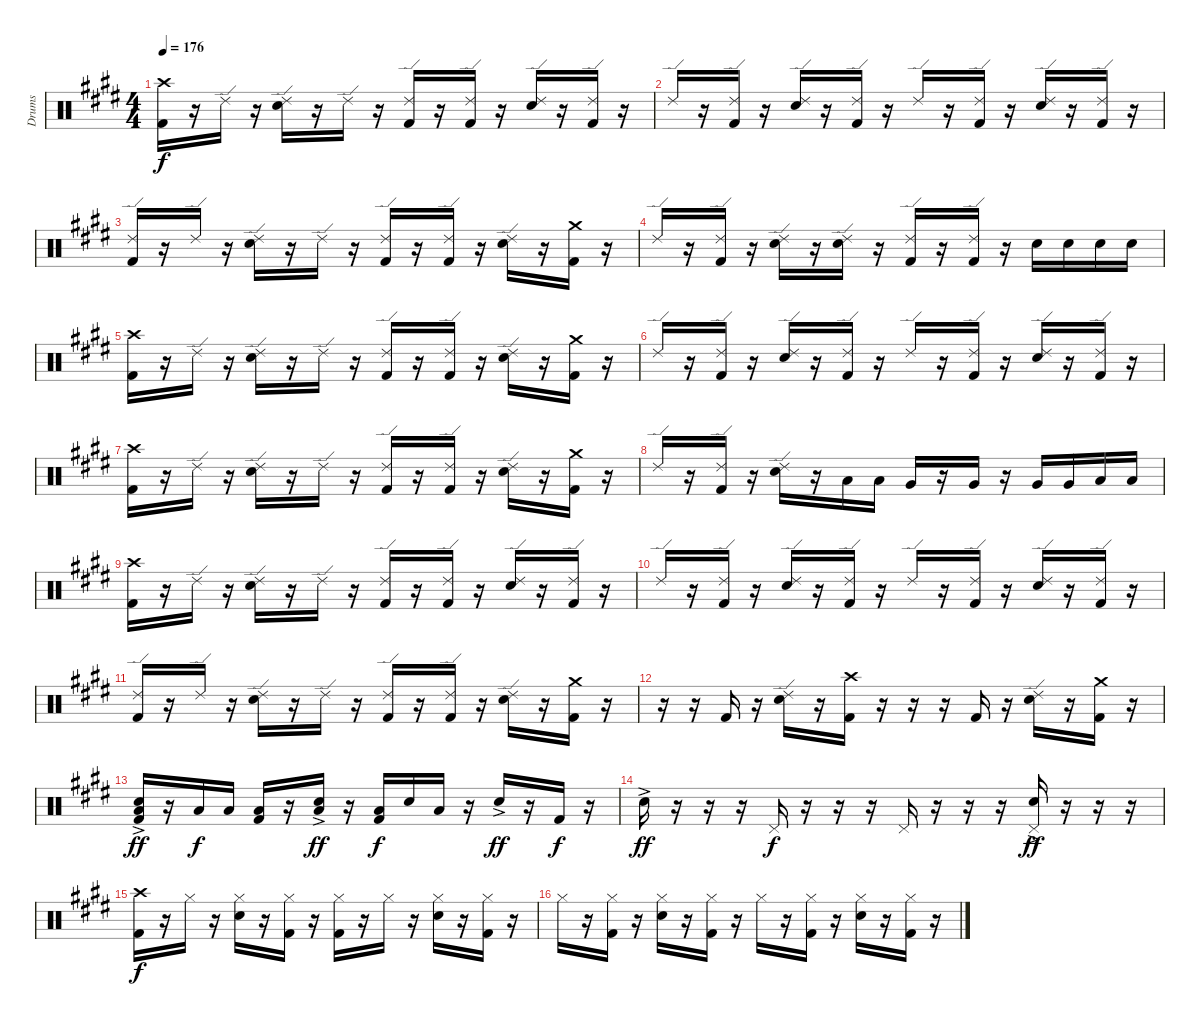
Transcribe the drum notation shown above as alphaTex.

\track ("Drums" "Drums") {instrument percussion}
\staff {score}
\articulation defaults
\ts (4 4)
\tempo 176
\clef neutral
\ks e
("Crash high (hit)" "Kick (hit) 2").16{dy f} r.16 "Ride (edge) 2".16 r.16 ("Ride (edge) 2" "Electric Snare (hit)").16 r.16 "Ride (edge) 2".16 r.16 ("Ride (edge) 2" "Kick (hit) 2").16 r.16 ("Ride (edge) 2" "Kick (hit) 2").16 r.16 ("Ride (edge) 2" "Electric Snare (hit)").16 r.16 ("Ride (edge) 2" "Kick (hit) 2").16 r.16 |
"Ride (edge) 2".16 r.16 ("Ride (edge) 2" "Kick (hit) 2").16 r.16 ("Ride (edge) 2" "Electric Snare (hit)").16 r.16 ("Ride (edge) 2" "Kick (hit) 2").16 r.16 "Ride (edge) 2".16 r.16 ("Ride (edge) 2" "Kick (hit) 2").16 r.16 ("Ride (edge) 2" "Electric Snare (hit)").16 r.16 ("Ride (edge) 2" "Kick (hit) 2").16 r.16 |
("Ride (edge) 2" "Kick (hit) 2").16 r.16 "Ride (edge) 2".16 r.16 ("Ride (edge) 2" "Electric Snare (hit)").16 r.16 "Ride (edge) 2".16 r.16 ("Ride (edge) 2" "Kick (hit) 2").16 r.16 ("Ride (edge) 2" "Kick (hit) 2").16 r.16 ("Ride (edge) 2" "Electric Snare (hit)").16 r.16 ("Crash medium (hit)" "Kick (hit) 2").16 r.16 |
"Ride (edge) 2".16 r.16 ("Ride (edge) 2" "Kick (hit) 2").16 r.16 ("Ride (edge) 2" "Electric Snare (hit)").16 r.16 ("Ride (edge) 2" "Electric Snare (hit)").16 r.16 ("Ride (edge) 2" "Kick (hit) 2").16 r.16 ("Ride (edge) 2" "Kick (hit) 2").16 r.16 "Electric Snare (hit)".16 "Electric Snare (hit)".16 "Electric Snare (hit)".16 "Electric Snare (hit)".16 |
("Crash high (hit)" "Kick (hit) 2").16 r.16 "Ride (edge) 2".16 r.16 ("Ride (edge) 2" "Electric Snare (hit)").16 r.16 "Ride (edge) 2".16 r.16 ("Ride (edge) 2" "Kick (hit) 2").16 r.16 ("Ride (edge) 2" "Kick (hit) 2").16 r.16 ("Ride (edge) 2" "Electric Snare (hit)").16 r.16 ("Crash medium (hit)" "Kick (hit) 2").16 r.16 |
"Ride (edge) 2".16 r.16 ("Ride (edge) 2" "Kick (hit) 2").16 r.16 ("Ride (edge) 2" "Electric Snare (hit)").16 r.16 ("Ride (edge) 2" "Kick (hit) 2").16 r.16 "Ride (edge) 2".16 r.16 ("Ride (edge) 2" "Kick (hit) 2").16 r.16 ("Ride (edge) 2" "Electric Snare (hit)").16 r.16 ("Ride (edge) 2" "Kick (hit) 2").16 r.16 |
("Crash high (hit)" "Kick (hit) 2").16 r.16 "Ride (edge) 2".16 r.16 ("Ride (edge) 2" "Electric Snare (hit)").16 r.16 "Ride (edge) 2".16 r.16 ("Ride (edge) 2" "Kick (hit) 2").16 r.16 ("Ride (edge) 2" "Kick (hit) 2").16 r.16 ("Ride (edge) 2" "Electric Snare (hit)").16 r.16 ("Crash medium (hit)" "Kick (hit) 2").16 r.16 |
"Ride (edge) 2".16 r.16 ("Ride (edge) 2" "Kick (hit) 2").16 r.16 ("Ride (edge) 2" "Electric Snare (hit)").16 r.16 "Low Tom (hit)".16 "Low Tom (hit)".16 "Very Low Tom (hit)".16 r.16 "Very Low Tom (hit)".16 r.16 "Very Low Tom (hit)".16 "Very Low Tom (hit)".16 "Low Floor Tom (hit)".16 "Low Floor Tom (hit)".16 |
("Crash high (hit)" "Kick (hit) 2").16 r.16 "Ride (edge) 2".16 r.16 ("Ride (edge) 2" "Electric Snare (hit)").16 r.16 "Ride (edge) 2".16 r.16 ("Ride (edge) 2" "Kick (hit) 2").16 r.16 ("Ride (edge) 2" "Kick (hit) 2").16 r.16 ("Ride (edge) 2" "Electric Snare (hit)").16 r.16 ("Ride (edge) 2" "Kick (hit) 2").16 r.16 |
"Ride (edge) 2".16 r.16 ("Ride (edge) 2" "Kick (hit) 2").16 r.16 ("Ride (edge) 2" "Electric Snare (hit)").16 r.16 ("Ride (edge) 2" "Kick (hit) 2").16 r.16 "Ride (edge) 2".16 r.16 ("Ride (edge) 2" "Kick (hit) 2").16 r.16 ("Ride (edge) 2" "Electric Snare (hit)").16 r.16 ("Ride (edge) 2" "Kick (hit) 2").16 r.16 |
("Ride (edge) 2" "Kick (hit) 2").16 r.16 "Ride (edge) 2".16 r.16 ("Ride (edge) 2" "Electric Snare (hit)").16 r.16 "Ride (edge) 2".16 r.16 ("Ride (edge) 2" "Kick (hit) 2").16 r.16 ("Ride (edge) 2" "Kick (hit) 2").16 r.16 ("Ride (edge) 2" "Electric Snare (hit)").16 r.16 ("Crash medium (hit)" "Kick (hit) 2").16 r.16 |
r.16 r.16 "Kick (hit) 2".16 r.16 ("Ride (edge) 2" "Electric Snare (hit)").16 r.16 ("Crash high (hit)" "Kick (hit) 2").16 r.16 r.16 r.16 "Kick (hit) 2".16 r.16 ("Ride (edge) 2" "Electric Snare (hit)").16 r.16 ("Crash medium (hit)" "Kick (hit) 2").16 r.16 |
("Low Floor Tom (hit)"{ac} "Electric Snare (hit)"{ac} "Kick (hit) 2").16{dy ff} r.16 "Low Floor Tom (hit)".16{dy f} "Low Floor Tom (hit)".16 ("Low Floor Tom (hit)" "Kick (hit) 2").16 r.16 ("Low Floor Tom (hit)"{ac} "Electric Snare (hit)"{ac}).16{dy ff} r.16 ("Low Floor Tom (hit)" "Kick (hit) 2").16{dy f} "Electric Snare (hit)".16 "Low Floor Tom (hit)".16 r.16 "Electric Snare (hit)"{ac}.16{dy ff} r.16 "Kick (hit) 2".16{dy f} r.16 |
"Electric Snare (hit)"{ac}.16{dy ff} r.16 r.16 r.16 "Pedal Hi-Hat (hit)".16{dy f} r.16 r.16 r.16 "Pedal Hi-Hat (hit)".16 r.16 r.16 r.16 ("Pedal Hi-Hat (hit)" "Electric Snare (hit)"{ac}).16{dy ff} r.16 r.16 r.16 |
("Crash high (hit)" "Kick (hit) 2").16{dy f} r.16 "Hi-Hat (closed)".16 r.16 ("Hi-Hat (closed)" "Electric Snare (hit)").16 r.16 ("Hi-Hat (closed)" "Kick (hit) 2").16 r.16 ("Hi-Hat (closed)" "Kick (hit) 2").16 r.16 "Hi-Hat (closed)".16 r.16 ("Hi-Hat (closed)" "Electric Snare (hit)").16 r.16 ("Hi-Hat (closed)" "Kick (hit) 2").16 r.16 |
"Hi-Hat (closed)".16 r.16 ("Hi-Hat (closed)" "Kick (hit) 2").16 r.16 ("Hi-Hat (closed)" "Electric Snare (hit)").16 r.16 ("Hi-Hat (closed)" "Kick (hit) 2").16 r.16 "Hi-Hat (closed)".16 r.16 ("Hi-Hat (closed)" "Kick (hit) 2").16 r.16 ("Hi-Hat (closed)" "Electric Snare (hit)").16 r.16 ("Hi-Hat (closed)" "Kick (hit) 2").16 r.16
